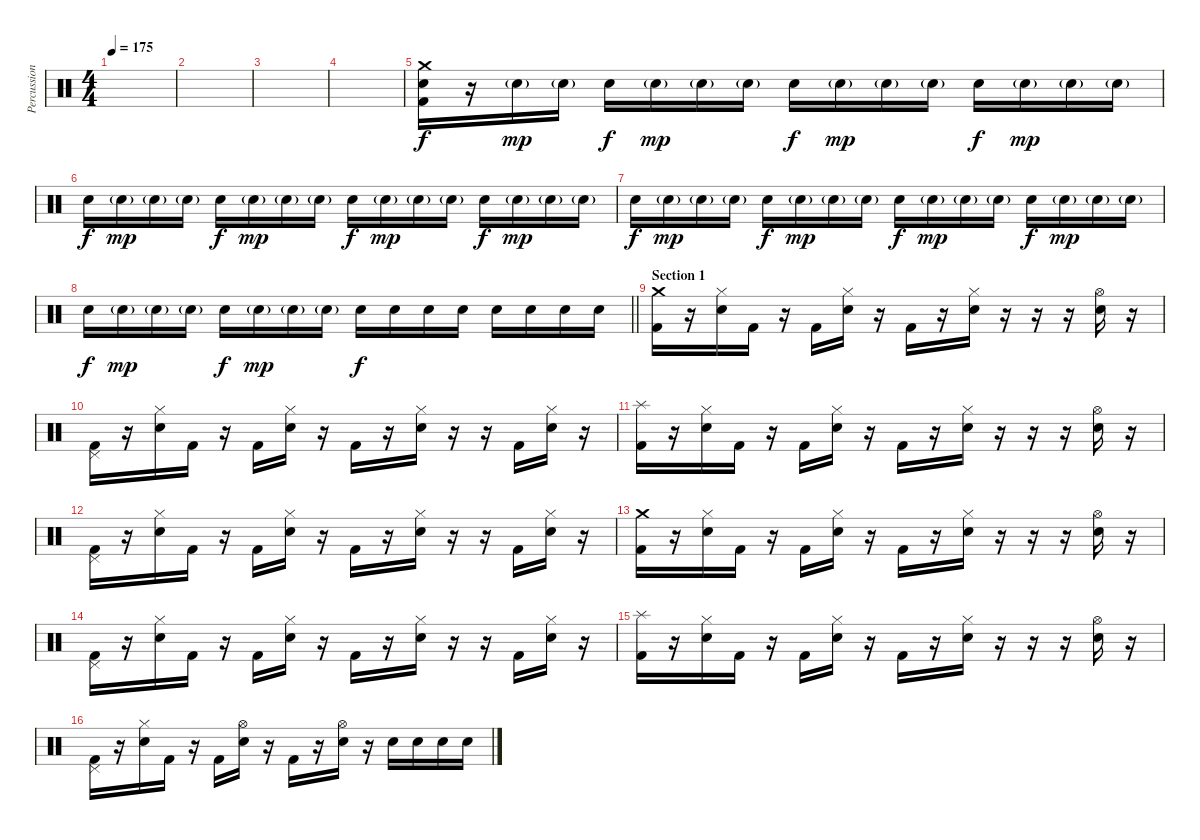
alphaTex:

\track ("Percussion" "Percussion") {instrument percussion}
\staff {score}
\articulation defaults
\ts (4 4)
\tempo 175
\clef neutral
\ks c
|
|
|
|
("Crash medium (hit)" "Electric Snare (hit)" "Kick (hit) 2").16 r.16 "Electric Snare (hit)"{g}.16{dy mp} "Electric Snare (hit)"{g}.16 "Electric Snare (hit)".16{dy f} "Electric Snare (hit)"{g}.16{dy mp} "Electric Snare (hit)"{g}.16 "Electric Snare (hit)"{g}.16 "Electric Snare (hit)".16{dy f} "Electric Snare (hit)"{g}.16{dy mp} "Electric Snare (hit)"{g}.16 "Electric Snare (hit)"{g}.16 "Electric Snare (hit)".16{dy f} "Electric Snare (hit)"{g}.16{dy mp} "Electric Snare (hit)"{g}.16 "Electric Snare (hit)"{g}.16 |
"Electric Snare (hit)".16{dy f} "Electric Snare (hit)"{g}.16{dy mp} "Electric Snare (hit)"{g}.16 "Electric Snare (hit)"{g}.16 "Electric Snare (hit)".16{dy f} "Electric Snare (hit)"{g}.16{dy mp} "Electric Snare (hit)"{g}.16 "Electric Snare (hit)"{g}.16 "Electric Snare (hit)".16{dy f} "Electric Snare (hit)"{g}.16{dy mp} "Electric Snare (hit)"{g}.16 "Electric Snare (hit)"{g}.16 "Electric Snare (hit)".16{dy f} "Electric Snare (hit)"{g}.16{dy mp} "Electric Snare (hit)"{g}.16 "Electric Snare (hit)"{g}.16 |
"Electric Snare (hit)".16{dy f} "Electric Snare (hit)"{g}.16{dy mp} "Electric Snare (hit)"{g}.16 "Electric Snare (hit)"{g}.16 "Electric Snare (hit)".16{dy f} "Electric Snare (hit)"{g}.16{dy mp} "Electric Snare (hit)"{g}.16 "Electric Snare (hit)"{g}.16 "Electric Snare (hit)".16{dy f} "Electric Snare (hit)"{g}.16{dy mp} "Electric Snare (hit)"{g}.16 "Electric Snare (hit)"{g}.16 "Electric Snare (hit)".16{dy f} "Electric Snare (hit)"{g}.16{dy mp} "Electric Snare (hit)"{g}.16 "Electric Snare (hit)"{g}.16 |
\barLineRight lightlight "Electric Snare (hit)".16{dy f} "Electric Snare (hit)"{g}.16{dy mp} "Electric Snare (hit)"{g}.16 "Electric Snare (hit)"{g}.16 "Electric Snare (hit)".16{dy f} "Electric Snare (hit)"{g}.16{dy mp} "Electric Snare (hit)"{g}.16 "Electric Snare (hit)"{g}.16 "Electric Snare (hit)".16{dy f} "Electric Snare (hit)".16 "Electric Snare (hit)".16 "Electric Snare (hit)".16 "Electric Snare (hit)".16 "Electric Snare (hit)".16 "Electric Snare (hit)".16 "Electric Snare (hit)".16
|
\section ("" "Section 1")
("Crash medium (hit)" "Kick (hit) 2").16 r.16 ("Hi-Hat (closed)" "Electric Snare (hit)").16 "Kick (hit) 2".16 r.16 "Kick (hit) 2".16 ("Hi-Hat (closed)" "Electric Snare (hit)").16 r.16 "Kick (hit) 2".16 r.16 ("Hi-Hat (closed)" "Electric Snare (hit)").16 r.16 r.16 r.16 ("Hi-Hat (open)" "Electric Snare (hit)").16 r.16 |
("Pedal Hi-Hat (hit)" "Kick (hit) 2").16 r.16 ("Hi-Hat (closed)" "Electric Snare (hit)").16 "Kick (hit) 2".16 r.16 "Kick (hit) 2".16 ("Hi-Hat (closed)" "Electric Snare (hit)").16 r.16 "Kick (hit) 2".16 r.16 ("Hi-Hat (closed)" "Electric Snare (hit)").16 r.16 r.16 "Kick (hit) 2".16 ("Hi-Hat (closed)" "Electric Snare (hit)").16 r.16 |
("Splash (hit)" "Kick (hit) 2").16 r.16 ("Hi-Hat (closed)" "Electric Snare (hit)").16 "Kick (hit) 2".16 r.16 "Kick (hit) 2".16 ("Hi-Hat (closed)" "Electric Snare (hit)").16 r.16 "Kick (hit) 2".16 r.16 ("Hi-Hat (closed)" "Electric Snare (hit)").16 r.16 r.16 r.16 ("Hi-Hat (open)" "Electric Snare (hit)").16 r.16 |
("Pedal Hi-Hat (hit)" "Kick (hit) 2").16 r.16 ("Hi-Hat (closed)" "Electric Snare (hit)").16 "Kick (hit) 2".16 r.16 "Kick (hit) 2".16 ("Hi-Hat (closed)" "Electric Snare (hit)").16 r.16 "Kick (hit) 2".16 r.16 ("Hi-Hat (closed)" "Electric Snare (hit)").16 r.16 r.16 "Kick (hit) 2".16 ("Hi-Hat (closed)" "Electric Snare (hit)").16 r.16 |
("Crash medium (hit)" "Kick (hit) 2").16 r.16 ("Hi-Hat (closed)" "Electric Snare (hit)").16 "Kick (hit) 2".16 r.16 "Kick (hit) 2".16 ("Hi-Hat (closed)" "Electric Snare (hit)").16 r.16 "Kick (hit) 2".16 r.16 ("Hi-Hat (closed)" "Electric Snare (hit)").16 r.16 r.16 r.16 ("Hi-Hat (open)" "Electric Snare (hit)").16 r.16 |
("Pedal Hi-Hat (hit)" "Kick (hit) 2").16 r.16 ("Hi-Hat (closed)" "Electric Snare (hit)").16 "Kick (hit) 2".16 r.16 "Kick (hit) 2".16 ("Hi-Hat (closed)" "Electric Snare (hit)").16 r.16 "Kick (hit) 2".16 r.16 ("Hi-Hat (closed)" "Electric Snare (hit)").16 r.16 r.16 "Kick (hit) 2".16 ("Hi-Hat (closed)" "Electric Snare (hit)").16 r.16 |
("Splash (hit)" "Kick (hit) 2").16 r.16 ("Hi-Hat (closed)" "Electric Snare (hit)").16 "Kick (hit) 2".16 r.16 "Kick (hit) 2".16 ("Hi-Hat (closed)" "Electric Snare (hit)").16 r.16 "Kick (hit) 2".16 r.16 ("Hi-Hat (closed)" "Electric Snare (hit)").16 r.16 r.16 r.16 ("Hi-Hat (open)" "Electric Snare (hit)").16 r.16 |
("Pedal Hi-Hat (hit)" "Kick (hit) 2").16 r.16 ("Hi-Hat (closed)" "Electric Snare (hit)").16 "Kick (hit) 2".16 r.16 "Kick (hit) 2".16 ("Hi-Hat (open)" "Electric Snare (hit)").16 r.16 "Kick (hit) 2".16 r.16 ("Hi-Hat (open)" "Electric Snare (hit)").16 r.16 "Electric Snare (hit)".16 "Electric Snare (hit)".16 "Electric Snare (hit)".16 "Electric Snare (hit)".16
